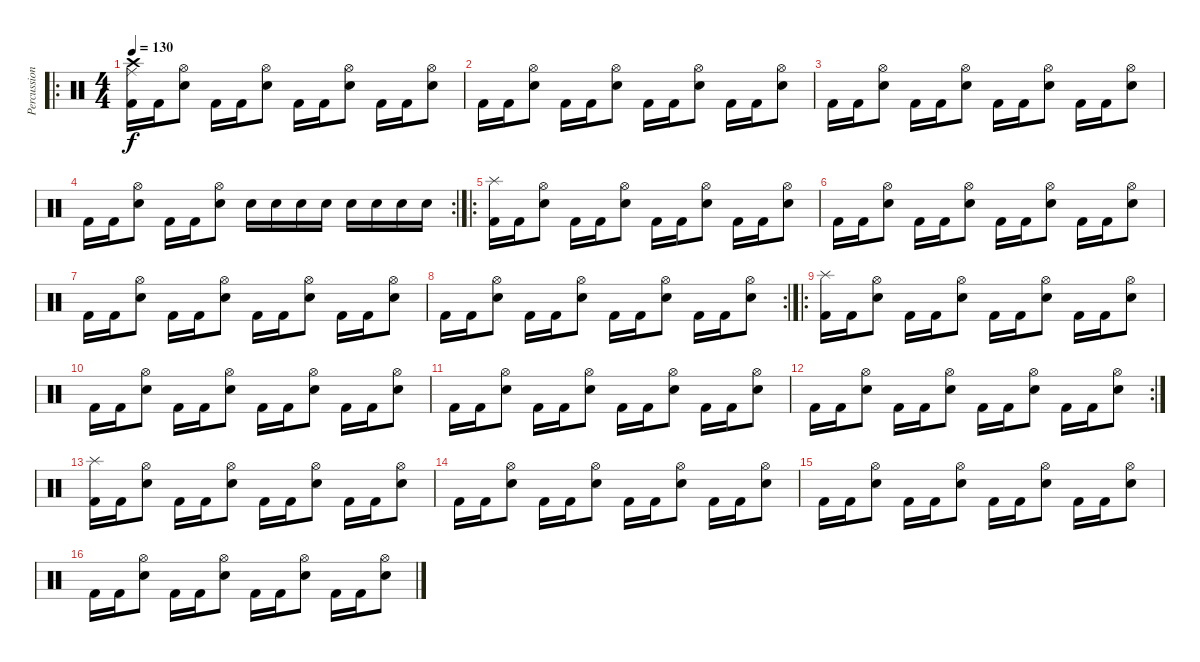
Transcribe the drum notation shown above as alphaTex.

\track ("Percussion" "Percussion") {instrument percussion}
\staff {score}
\articulation defaults
\ro
\ts (4 4)
\tempo 130
\clef neutral
\ks c
("Crash high (hit)" "Ride (middle)" "Kick (hit) 2").16{dy f} "Kick (hit) 2".16 ("Hi-Hat (open)" "Electric Snare (hit)").8 "Kick (hit) 2".16 "Kick (hit) 2".16 ("Hi-Hat (open)" "Electric Snare (hit)").8 "Kick (hit) 2".16 "Kick (hit) 2".16 ("Hi-Hat (open)" "Electric Snare (hit)").8 "Kick (hit) 2".16 "Kick (hit) 2".16 ("Hi-Hat (open)" "Electric Snare (hit)").8 |
"Kick (hit) 2".16 "Kick (hit) 2".16 ("Hi-Hat (open)" "Electric Snare (hit)").8 "Kick (hit) 2".16 "Kick (hit) 2".16 ("Hi-Hat (open)" "Electric Snare (hit)").8 "Kick (hit) 2".16 "Kick (hit) 2".16 ("Hi-Hat (open)" "Electric Snare (hit)").8 "Kick (hit) 2".16 "Kick (hit) 2".16 ("Hi-Hat (open)" "Electric Snare (hit)").8 |
"Kick (hit) 2".16 "Kick (hit) 2".16 ("Hi-Hat (open)" "Electric Snare (hit)").8 "Kick (hit) 2".16 "Kick (hit) 2".16 ("Hi-Hat (open)" "Electric Snare (hit)").8 "Kick (hit) 2".16 "Kick (hit) 2".16 ("Hi-Hat (open)" "Electric Snare (hit)").8 "Kick (hit) 2".16 "Kick (hit) 2".16 ("Hi-Hat (open)" "Electric Snare (hit)").8 |
\rc 2 "Kick (hit) 2".16 "Kick (hit) 2".16
("Hi-Hat (open)" "Electric Snare (hit)").8 "Kick (hit) 2".16 "Kick (hit) 2".16 ("Hi-Hat (open)" "Electric Snare (hit)").8 "Electric Snare (hit)".16 "Electric Snare (hit)".16 "Electric Snare (hit)".16 "Electric Snare (hit)".16 "Electric Snare (hit)".16 "Electric Snare (hit)".16 "Electric Snare (hit)".16 "Electric Snare (hit)".16 |
\ro
("Splash (hit)" "Kick (hit) 2").16 "Kick (hit) 2".16 ("Hi-Hat (open)" "Electric Snare (hit)").8 "Kick (hit) 2".16 "Kick (hit) 2".16 ("Hi-Hat (open)" "Electric Snare (hit)").8 "Kick (hit) 2".16 "Kick (hit) 2".16 ("Hi-Hat (open)" "Electric Snare (hit)").8 "Kick (hit) 2".16 "Kick (hit) 2".16 ("Hi-Hat (open)" "Electric Snare (hit)").8 |
"Kick (hit) 2".16 "Kick (hit) 2".16 ("Hi-Hat (open)" "Electric Snare (hit)").8 "Kick (hit) 2".16 "Kick (hit) 2".16 ("Hi-Hat (open)" "Electric Snare (hit)").8 "Kick (hit) 2".16 "Kick (hit) 2".16 ("Hi-Hat (open)" "Electric Snare (hit)").8 "Kick (hit) 2".16 "Kick (hit) 2".16 ("Hi-Hat (open)" "Electric Snare (hit)").8 |
"Kick (hit) 2".16 "Kick (hit) 2".16 ("Hi-Hat (open)" "Electric Snare (hit)").8 "Kick (hit) 2".16 "Kick (hit) 2".16 ("Hi-Hat (open)" "Electric Snare (hit)").8 "Kick (hit) 2".16 "Kick (hit) 2".16 ("Hi-Hat (open)" "Electric Snare (hit)").8 "Kick (hit) 2".16 "Kick (hit) 2".16 ("Hi-Hat (open)" "Electric Snare (hit)").8 |
\rc 2 "Kick (hit) 2".16 "Kick (hit) 2".16
("Hi-Hat (open)" "Electric Snare (hit)").8 "Kick (hit) 2".16 "Kick (hit) 2".16 ("Hi-Hat (open)" "Electric Snare (hit)").8 "Kick (hit) 2".16 "Kick (hit) 2".16 ("Hi-Hat (open)" "Electric Snare (hit)").8 "Kick (hit) 2".16 "Kick (hit) 2".16 ("Hi-Hat (open)" "Electric Snare (hit)").8 |
\ro
("Splash (hit)" "Kick (hit) 2").16 "Kick (hit) 2".16 ("Hi-Hat (open)" "Electric Snare (hit)").8 "Kick (hit) 2".16 "Kick (hit) 2".16 ("Hi-Hat (open)" "Electric Snare (hit)").8 "Kick (hit) 2".16 "Kick (hit) 2".16 ("Hi-Hat (open)" "Electric Snare (hit)").8 "Kick (hit) 2".16 "Kick (hit) 2".16 ("Hi-Hat (open)" "Electric Snare (hit)").8 |
"Kick (hit) 2".16 "Kick (hit) 2".16 ("Hi-Hat (open)" "Electric Snare (hit)").8 "Kick (hit) 2".16 "Kick (hit) 2".16 ("Hi-Hat (open)" "Electric Snare (hit)").8 "Kick (hit) 2".16 "Kick (hit) 2".16 ("Hi-Hat (open)" "Electric Snare (hit)").8 "Kick (hit) 2".16 "Kick (hit) 2".16 ("Hi-Hat (open)" "Electric Snare (hit)").8 |
"Kick (hit) 2".16 "Kick (hit) 2".16 ("Hi-Hat (open)" "Electric Snare (hit)").8 "Kick (hit) 2".16 "Kick (hit) 2".16 ("Hi-Hat (open)" "Electric Snare (hit)").8 "Kick (hit) 2".16 "Kick (hit) 2".16 ("Hi-Hat (open)" "Electric Snare (hit)").8 "Kick (hit) 2".16 "Kick (hit) 2".16 ("Hi-Hat (open)" "Electric Snare (hit)").8 |
\rc 2 "Kick (hit) 2".16 "Kick (hit) 2".16
("Hi-Hat (open)" "Electric Snare (hit)").8 "Kick (hit) 2".16 "Kick (hit) 2".16 ("Hi-Hat (open)" "Electric Snare (hit)").8 "Kick (hit) 2".16 "Kick (hit) 2".16 ("Hi-Hat (open)" "Electric Snare (hit)").8 "Kick (hit) 2".16 "Kick (hit) 2".16 ("Hi-Hat (open)" "Electric Snare (hit)").8 |
("Splash (hit)" "Kick (hit) 2").16 "Kick (hit) 2".16 ("Hi-Hat (open)" "Electric Snare (hit)").8 "Kick (hit) 2".16 "Kick (hit) 2".16 ("Hi-Hat (open)" "Electric Snare (hit)").8 "Kick (hit) 2".16 "Kick (hit) 2".16 ("Hi-Hat (open)" "Electric Snare (hit)").8 "Kick (hit) 2".16 "Kick (hit) 2".16 ("Hi-Hat (open)" "Electric Snare (hit)").8 |
"Kick (hit) 2".16 "Kick (hit) 2".16 ("Hi-Hat (open)" "Electric Snare (hit)").8 "Kick (hit) 2".16 "Kick (hit) 2".16 ("Hi-Hat (open)" "Electric Snare (hit)").8 "Kick (hit) 2".16 "Kick (hit) 2".16 ("Hi-Hat (open)" "Electric Snare (hit)").8 "Kick (hit) 2".16 "Kick (hit) 2".16 ("Hi-Hat (open)" "Electric Snare (hit)").8 |
"Kick (hit) 2".16 "Kick (hit) 2".16 ("Hi-Hat (open)" "Electric Snare (hit)").8 "Kick (hit) 2".16 "Kick (hit) 2".16 ("Hi-Hat (open)" "Electric Snare (hit)").8 "Kick (hit) 2".16 "Kick (hit) 2".16 ("Hi-Hat (open)" "Electric Snare (hit)").8 "Kick (hit) 2".16 "Kick (hit) 2".16 ("Hi-Hat (open)" "Electric Snare (hit)").8 |
"Kick (hit) 2".16 "Kick (hit) 2".16 ("Hi-Hat (open)" "Electric Snare (hit)").8 "Kick (hit) 2".16 "Kick (hit) 2".16 ("Hi-Hat (open)" "Electric Snare (hit)").8 "Kick (hit) 2".16 "Kick (hit) 2".16 ("Hi-Hat (open)" "Electric Snare (hit)").8 "Kick (hit) 2".16 "Kick (hit) 2".16 ("Hi-Hat (open)" "Electric Snare (hit)").8
